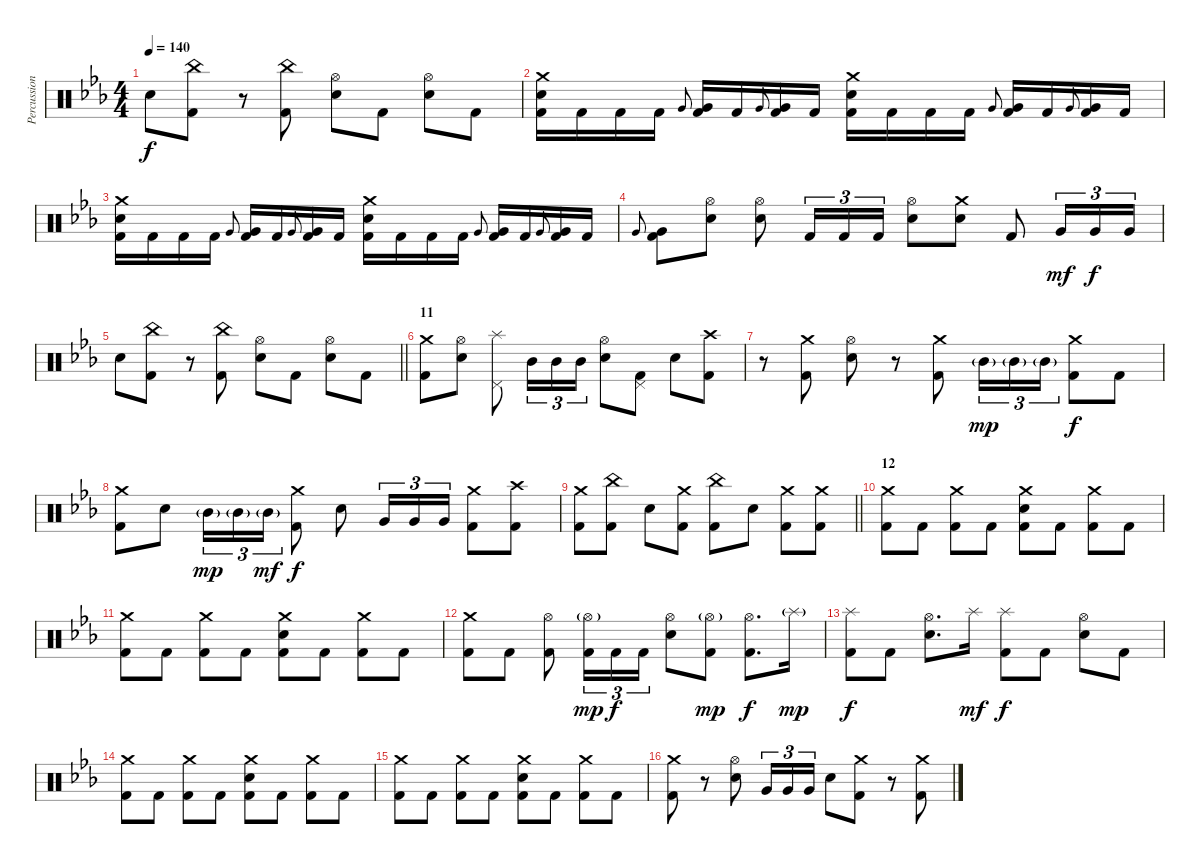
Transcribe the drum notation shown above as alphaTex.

\track ("Percussion" "Percussion") {instrument percussion}
\staff {score}
\articulation defaults
\ts (4 4)
\tempo 140
\clef neutral
\ks cminor "Snare (hit) 2".8{dy f}
("China (hit)" "Kick (hit) 2").8 r.8 ("China (hit)" "Kick (hit) 2").8 ("Hi-Hat (open)" "Snare (hit) 2").8 "Kick (hit) 2".8 ("Hi-Hat (open)" "Snare (hit) 2").8 "Kick (hit) 2".8 |
("Crash medium (hit)" "Snare (hit) 2" "Kick (hit) 2").16 "Kick (hit) 2".16 "Kick (hit) 2".16 "Kick (hit) 2".16 "Very Low Tom (hit)".8{gr onbeat} ("Very Low Tom (hit)" "Kick (hit) 2").16 "Kick (hit) 2".16 "Very Low Tom (hit)".8{gr onbeat} ("Very Low Tom (hit)" "Kick (hit) 2").16 "Kick (hit) 2".16 ("Crash medium (hit)" "Snare (hit) 2" "Kick (hit) 2").16 "Kick (hit) 2".16 "Kick (hit) 2".16 "Kick (hit) 2".16 "Very Low Tom (hit)".8{gr onbeat} ("Very Low Tom (hit)" "Kick (hit) 2").16 "Kick (hit) 2".16 "Very Low Tom (hit)".8{gr onbeat} ("Very Low Tom (hit)" "Kick (hit) 2").16 "Kick (hit) 2".16 |
("Crash medium (hit)" "Snare (hit) 2" "Kick (hit) 2").16 "Kick (hit) 2".16 "Kick (hit) 2".16 "Kick (hit) 2".16 "Very Low Tom (hit)".8{gr onbeat} ("Very Low Tom (hit)" "Kick (hit) 2").16 "Kick (hit) 2".16 "Very Low Tom (hit)".8{gr onbeat} ("Very Low Tom (hit)" "Kick (hit) 2").16 "Kick (hit) 2".16 ("Crash medium (hit)" "Snare (hit) 2" "Kick (hit) 2").16 "Kick (hit) 2".16 "Kick (hit) 2".16 "Kick (hit) 2".16 "Very Low Tom (hit)".8{gr onbeat} ("Very Low Tom (hit)" "Kick (hit) 2").16 "Kick (hit) 2".16 "Very Low Tom (hit)".8{gr onbeat} ("Very Low Tom (hit)" "Kick (hit) 2").16 "Kick (hit) 2".16 |
"Very Low Tom (hit)".8{gr onbeat} ("Very Low Tom (hit)" "Kick (hit) 2").8 ("Hi-Hat (open)" "Snare (hit) 2").8 ("Hi-Hat (open)" "Snare (hit) 2").8 "Kick (hit) 2".16{tu (3 2)} "Kick (hit) 2".16{tu (3 2)} "Kick (hit) 2".16{tu (3 2)} ("Hi-Hat (open)" "Snare (hit) 2").8 ("Crash medium (hit)" "Snare (hit) 2").8 "Kick (hit) 2".8 "Very Low Tom (hit)".16{tu (3 2) dy mf} "Very Low Tom (hit)".16{tu (3 2) dy f} "Very Low Tom (hit)".16{tu (3 2)} |
\barLineRight lightlight "Snare (hit) 2".8
("China (hit)" "Kick (hit) 2").8 r.8 ("China (hit)" "Kick (hit) 2").8 ("Hi-Hat (open)" "Snare (hit) 2").8 "Kick (hit) 2".8 ("Hi-Hat (open)" "Snare (hit) 2").8 "Kick (hit) 2".8 |
\section ("" "11")
("Crash medium (hit)" "Kick (hit) 2").8 ("Hi-Hat (open)" "Snare (hit) 2").8 ("Splash (hit)" "Pedal Hi-Hat (hit)").8 "Mid Tom (hit)".16{tu (3 2)} "Mid Tom (hit)".16{tu (3 2)} "Mid Tom (hit)".16{tu (3 2)} ("Hi-Hat (open)" "Snare (hit) 2").8 ("Pedal Hi-Hat (hit)" "Kick (hit) 2").8 "Snare (hit) 2".8 ("Crash high (hit)" "Kick (hit) 2").8 |
r.8 ("Crash medium (hit)" "Kick (hit) 2").8 ("Hi-Hat (open)" "Snare (hit) 2").8 r.8 ("Crash medium (hit)" "Kick (hit) 2").8 "Mid Tom (hit)"{g}.16{tu (3 2) dy mp} "Mid Tom (hit)"{g}.16{tu (3 2)} "Mid Tom (hit)"{g}.16{tu (3 2)} ("Crash medium (hit)" "Kick (hit) 2").8{dy f} "Kick (hit) 2".8 |
("Crash medium (hit)" "Kick (hit) 2").8 "Snare (hit) 2".8 "Mid Tom (hit)"{g}.16{tu (3 2) dy mp} "Mid Tom (hit)"{g}.16{tu (3 2)} "Mid Tom (hit)"{g}.16{tu (3 2) dy mf} ("Crash medium (hit)" "Kick (hit) 2").8{dy f} "Snare (hit) 2".8 "Very Low Tom (hit)".16{tu (3 2)} "Very Low Tom (hit)".16{tu (3 2)} "Very Low Tom (hit)".16{tu (3 2)} ("Crash medium (hit)" "Kick (hit) 2").8 ("Crash high (hit)" "Kick (hit) 2").8 |
\barLineRight lightlight
("Crash medium (hit)" "Kick (hit) 2").8 ("China (hit)" "Kick (hit) 2").8 "Snare (hit) 2".8 ("Crash medium (hit)" "Kick (hit) 2").8 ("China (hit)" "Kick (hit) 2").8 "Snare (hit) 2".8 ("Crash medium (hit)" "Kick (hit) 2").8 ("Crash medium (hit)" "Kick (hit) 2").8 |
\section ("" "12")
("Crash medium (hit)" "Kick (hit) 2").8 "Kick (hit) 2".8 ("Crash medium (hit)" "Kick (hit) 2").8 "Kick (hit) 2".8 ("Crash medium (hit)" "Snare (hit) 2" "Kick (hit) 2").8 "Kick (hit) 2".8 ("Crash medium (hit)" "Kick (hit) 2").8 "Kick (hit) 2".8 |
("Crash medium (hit)" "Kick (hit) 2").8 "Kick (hit) 2".8 ("Crash medium (hit)" "Kick (hit) 2").8 "Kick (hit) 2".8 ("Crash medium (hit)" "Snare (hit) 2" "Kick (hit) 2").8 "Kick (hit) 2".8 ("Crash medium (hit)" "Kick (hit) 2").8 "Kick (hit) 2".8 |
("Crash medium (hit)" "Kick (hit) 2").8 "Kick (hit) 2".8 ("Hi-Hat (open)" "Kick (hit) 2").8 ("Hi-Hat (open)"{g} "Kick (hit) 2").16{tu (3 2) dy mp} "Kick (hit) 2".16{tu (3 2) dy f} "Kick (hit) 2".16{tu (3 2)} ("Hi-Hat (open)" "Snare (hit) 2").8 ("Hi-Hat (open)"{g} "Kick (hit) 2").8{dy mp} ("Hi-Hat (open)" "Kick (hit) 2").8{d dy f} "Splash (hit)"{g}.16{dy mp} |
("Splash (hit)" "Kick (hit) 2").8{dy f} "Kick (hit) 2".8 ("Hi-Hat (open)" "Snare (hit) 2").8{d} "Splash (hit)".16{dy mf} ("Splash (hit)" "Kick (hit) 2").8{dy f} "Kick (hit) 2".8 ("Hi-Hat (open)" "Snare (hit) 2").8 "Kick (hit) 2".8 |
("Crash medium (hit)" "Kick (hit) 2").8 "Kick (hit) 2".8 ("Crash medium (hit)" "Kick (hit) 2").8 "Kick (hit) 2".8 ("Crash medium (hit)" "Snare (hit) 2" "Kick (hit) 2").8 "Kick (hit) 2".8 ("Crash medium (hit)" "Kick (hit) 2").8 "Kick (hit) 2".8 |
("Crash medium (hit)" "Kick (hit) 2").8 "Kick (hit) 2".8 ("Crash medium (hit)" "Kick (hit) 2").8 "Kick (hit) 2".8 ("Crash medium (hit)" "Snare (hit) 2" "Kick (hit) 2").8 "Kick (hit) 2".8 ("Crash medium (hit)" "Kick (hit) 2").8 "Kick (hit) 2".8 |
("Crash medium (hit)" "Kick (hit) 2").8 r.8 ("Hi-Hat (open)" "Snare (hit) 2").8 "Very Low Tom (hit)".16{tu (3 2)} "Very Low Tom (hit)".16{tu (3 2)} "Very Low Tom (hit)".16{tu (3 2)} "Snare (hit) 2".8 ("Crash medium (hit)" "Kick (hit) 2").8 r.8 ("Crash medium (hit)" "Kick (hit) 2").8
